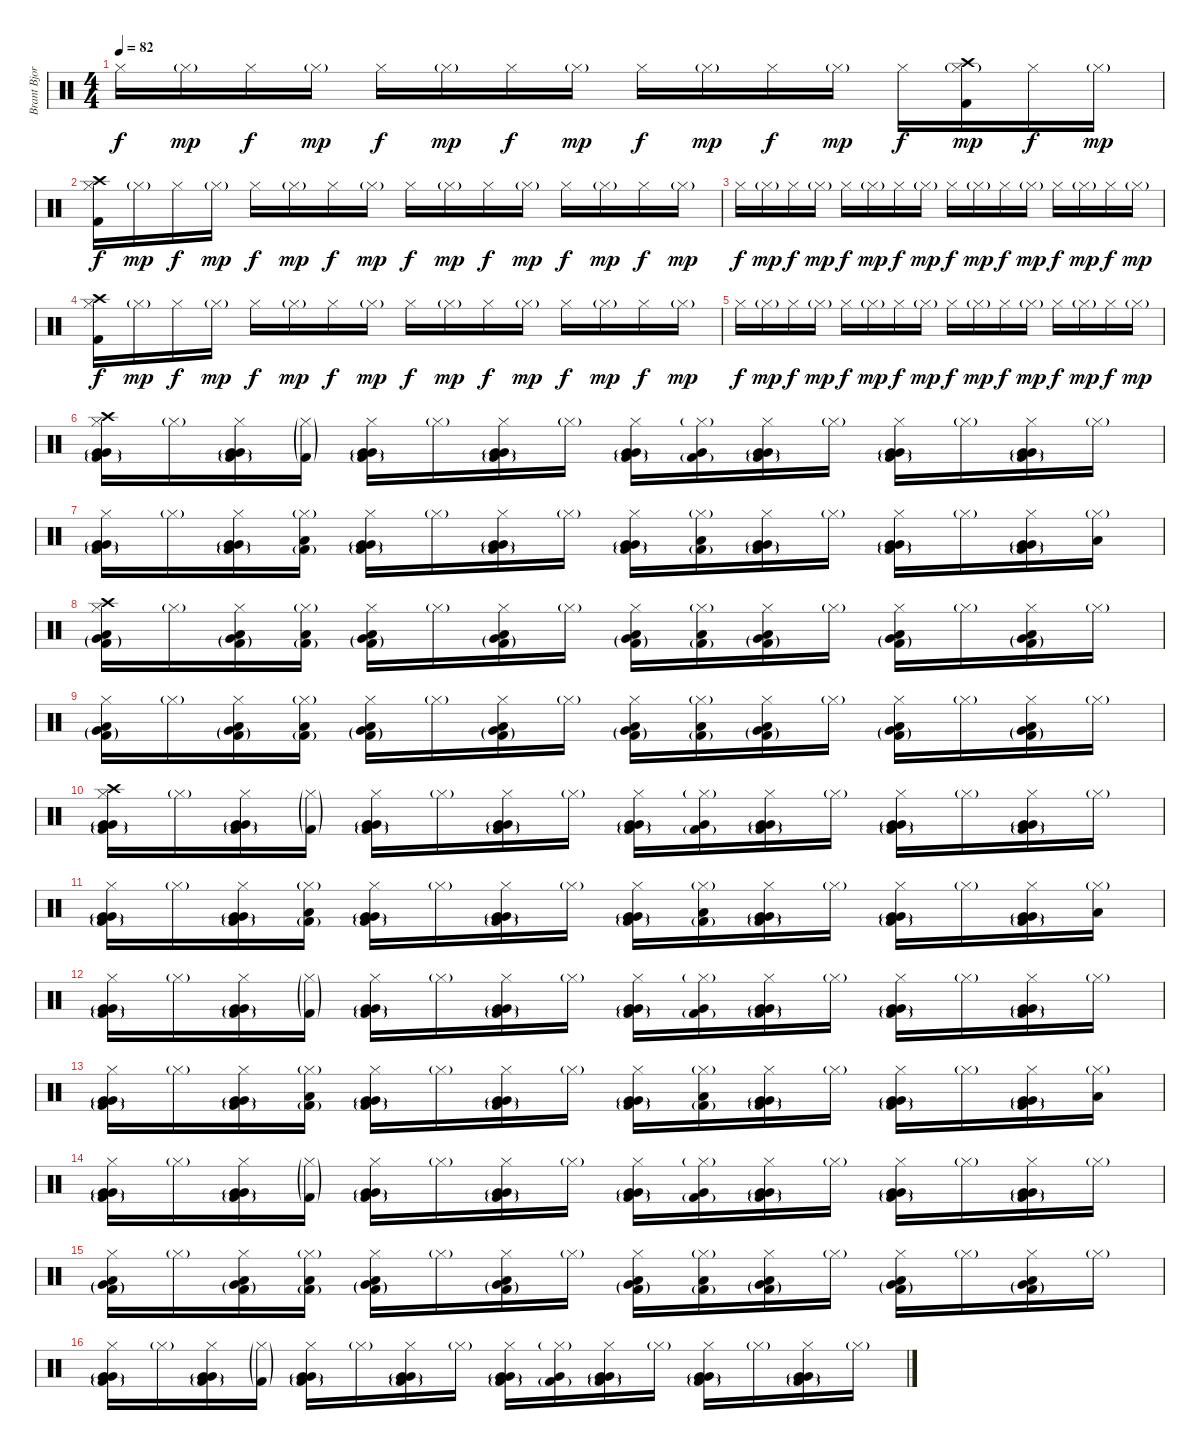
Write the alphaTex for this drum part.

\track ("Brant Bjork" "Brant Bjor") {instrument percussion}
\staff {score}
\articulation defaults
\ts (4 4)
\tempo 82
\clef neutral
\ks c "Hi-Hat (closed)".16{dy f} "Hi-Hat (closed)"{g}.16{dy mp} "Hi-Hat (closed)".16{dy f} "Hi-Hat (closed)"{g}.16{dy mp} "Hi-Hat (closed)".16{dy f} "Hi-Hat (closed)"{g}.16{dy mp} "Hi-Hat (closed)".16{dy f} "Hi-Hat (closed)"{g}.16{dy mp} "Hi-Hat (closed)".16{dy f} "Hi-Hat (closed)"{g}.16{dy mp} "Hi-Hat (closed)".16{dy f} "Hi-Hat (closed)"{g}.16{dy mp} "Hi-Hat (closed)".16{dy f}
("Crash high (hit)" "Kick (hit) 2" "Hi-Hat (closed)"{g}).16{dy mp} "Hi-Hat (closed)".16{dy f} "Hi-Hat (closed)"{g}.16{dy mp} |
("Crash high (hit)" "Kick (hit) 2" "Hi-Hat (closed)").16{dy f} "Hi-Hat (closed)"{g}.16{dy mp} "Hi-Hat (closed)".16{dy f} "Hi-Hat (closed)"{g}.16{dy mp} "Hi-Hat (closed)".16{dy f} "Hi-Hat (closed)"{g}.16{dy mp} "Hi-Hat (closed)".16{dy f} "Hi-Hat (closed)"{g}.16{dy mp} "Hi-Hat (closed)".16{dy f} "Hi-Hat (closed)"{g}.16{dy mp} "Hi-Hat (closed)".16{dy f} "Hi-Hat (closed)"{g}.16{dy mp} "Hi-Hat (closed)".16{dy f} "Hi-Hat (closed)"{g}.16{dy mp} "Hi-Hat (closed)".16{dy f} "Hi-Hat (closed)"{g}.16{dy mp} |
"Hi-Hat (closed)".16{dy f} "Hi-Hat (closed)"{g}.16{dy mp} "Hi-Hat (closed)".16{dy f} "Hi-Hat (closed)"{g}.16{dy mp} "Hi-Hat (closed)".16{dy f} "Hi-Hat (closed)"{g}.16{dy mp} "Hi-Hat (closed)".16{dy f} "Hi-Hat (closed)"{g}.16{dy mp} "Hi-Hat (closed)".16{dy f} "Hi-Hat (closed)"{g}.16{dy mp} "Hi-Hat (closed)".16{dy f} "Hi-Hat (closed)"{g}.16{dy mp} "Hi-Hat (closed)".16{dy f} "Hi-Hat (closed)"{g}.16{dy mp} "Hi-Hat (closed)".16{dy f} "Hi-Hat (closed)"{g}.16{dy mp} |
("Crash high (hit)" "Kick (hit) 2" "Hi-Hat (closed)").16{dy f} "Hi-Hat (closed)"{g}.16{dy mp} "Hi-Hat (closed)".16{dy f} "Hi-Hat (closed)"{g}.16{dy mp} "Hi-Hat (closed)".16{dy f} "Hi-Hat (closed)"{g}.16{dy mp} "Hi-Hat (closed)".16{dy f} "Hi-Hat (closed)"{g}.16{dy mp} "Hi-Hat (closed)".16{dy f} "Hi-Hat (closed)"{g}.16{dy mp} "Hi-Hat (closed)".16{dy f} "Hi-Hat (closed)"{g}.16{dy mp} "Hi-Hat (closed)".16{dy f} "Hi-Hat (closed)"{g}.16{dy mp} "Hi-Hat (closed)".16{dy f} "Hi-Hat (closed)"{g}.16{dy mp} |
"Hi-Hat (closed)".16{dy f} "Hi-Hat (closed)"{g}.16{dy mp} "Hi-Hat (closed)".16{dy f} "Hi-Hat (closed)"{g}.16{dy mp} "Hi-Hat (closed)".16{dy f} "Hi-Hat (closed)"{g}.16{dy mp} "Hi-Hat (closed)".16{dy f} "Hi-Hat (closed)"{g}.16{dy mp} "Hi-Hat (closed)".16{dy f} "Hi-Hat (closed)"{g}.16{dy mp} "Hi-Hat (closed)".16{dy f} "Hi-Hat (closed)"{g}.16{dy mp} "Hi-Hat (closed)".16{dy f} "Hi-Hat (closed)"{g}.16{dy mp} "Hi-Hat (closed)".16{dy f} "Hi-Hat (closed)"{g}.16{dy mp} |
("Crash high (hit)" "Very Low Tom (hit)"{g} "Very Low Tom (hit)" "Kick (hit) 2"{g} "Hi-Hat (closed)").16 "Hi-Hat (closed)"{g}.16 ("Very Low Tom (hit)"{g} "Very Low Tom (hit)" "Kick (hit) 2"{g} "Hi-Hat (closed)").16 ("Kick (hit) 2"{g} "Hi-Hat (closed)"{g}).16 ("Very Low Tom (hit)"{g} "Very Low Tom (hit)" "Kick (hit) 2"{g} "Hi-Hat (closed)").16 "Hi-Hat (closed)"{g}.16 ("Very Low Tom (hit)"{g} "Very Low Tom (hit)" "Kick (hit) 2"{g} "Hi-Hat (closed)").16 "Hi-Hat (closed)"{g}.16 ("Very Low Tom (hit)"{g} "Very Low Tom (hit)" "Kick (hit) 2"{g} "Hi-Hat (closed)").16 ("Very Low Tom (hit)" "Kick (hit) 2"{g} "Hi-Hat (closed)"{g}).16 ("Very Low Tom (hit)"{g} "Very Low Tom (hit)" "Kick (hit) 2"{g} "Hi-Hat (closed)").16 "Hi-Hat (closed)"{g}.16 ("Very Low Tom (hit)"{g} "Very Low Tom (hit)" "Kick (hit) 2"{g} "Hi-Hat (closed)").16 "Hi-Hat (closed)"{g}.16 ("Very Low Tom (hit)"{g} "Very Low Tom (hit)" "Kick (hit) 2"{g} "Hi-Hat (closed)").16 "Hi-Hat (closed)"{g}.16 |
("Very Low Tom (hit)"{g} "Very Low Tom (hit)" "Kick (hit) 2"{g} "Hi-Hat (closed)").16 "Hi-Hat (closed)"{g}.16 ("Very Low Tom (hit)"{g} "Very Low Tom (hit)" "Kick (hit) 2"{g} "Hi-Hat (closed)").16 ("Low Floor Tom (hit)" "Kick (hit) 2"{g} "Hi-Hat (closed)"{g}).16 ("Very Low Tom (hit)"{g} "Very Low Tom (hit)" "Kick (hit) 2"{g} "Hi-Hat (closed)").16 "Hi-Hat (closed)"{g}.16 ("Very Low Tom (hit)"{g} "Very Low Tom (hit)" "Kick (hit) 2"{g} "Hi-Hat (closed)").16 "Hi-Hat (closed)"{g}.16 ("Very Low Tom (hit)"{g} "Very Low Tom (hit)" "Kick (hit) 2"{g} "Hi-Hat (closed)").16 ("Low Floor Tom (hit)" "Kick (hit) 2"{g} "Hi-Hat (closed)"{g}).16 ("Very Low Tom (hit)"{g} "Very Low Tom (hit)" "Kick (hit) 2"{g} "Hi-Hat (closed)").16 "Hi-Hat (closed)"{g}.16 ("Very Low Tom (hit)"{g} "Very Low Tom (hit)" "Kick (hit) 2"{g} "Hi-Hat (closed)").16 "Hi-Hat (closed)"{g}.16 ("Very Low Tom (hit)"{g} "Very Low Tom (hit)" "Kick (hit) 2"{g} "Hi-Hat (closed)").16 ("Low Floor Tom (hit)" "Hi-Hat (closed)"{g}).16 |
("Crash high (hit)" "Very Low Tom (hit)"{g} "Low Tom (hit)" "Kick (hit) 2"{g} "Hi-Hat (closed)").16 "Hi-Hat (closed)"{g}.16 ("Very Low Tom (hit)"{g} "Low Tom (hit)" "Kick (hit) 2"{g} "Hi-Hat (closed)").16 ("Low Tom (hit)" "Kick (hit) 2"{g} "Hi-Hat (closed)"{g}).16 ("Very Low Tom (hit)"{g} "Low Tom (hit)" "Kick (hit) 2"{g} "Hi-Hat (closed)").16 "Hi-Hat (closed)"{g}.16 ("Very Low Tom (hit)"{g} "Low Tom (hit)" "Kick (hit) 2"{g} "Hi-Hat (closed)").16 "Hi-Hat (closed)"{g}.16 ("Very Low Tom (hit)"{g} "Low Tom (hit)" "Kick (hit) 2"{g} "Hi-Hat (closed)").16 ("Low Tom (hit)" "Kick (hit) 2"{g} "Hi-Hat (closed)"{g}).16 ("Very Low Tom (hit)"{g} "Low Tom (hit)" "Kick (hit) 2"{g} "Hi-Hat (closed)").16 "Hi-Hat (closed)"{g}.16 ("Very Low Tom (hit)"{g} "Low Tom (hit)" "Kick (hit) 2"{g} "Hi-Hat (closed)").16 "Hi-Hat (closed)"{g}.16 ("Very Low Tom (hit)"{g} "Low Tom (hit)" "Kick (hit) 2"{g} "Hi-Hat (closed)").16 "Hi-Hat (closed)"{g}.16 |
("Very Low Tom (hit)"{g} "Low Tom (hit)" "Kick (hit) 2"{g} "Hi-Hat (closed)").16 "Hi-Hat (closed)"{g}.16 ("Very Low Tom (hit)"{g} "Low Tom (hit)" "Kick (hit) 2"{g} "Hi-Hat (closed)").16 ("Low Tom (hit)" "Kick (hit) 2"{g} "Hi-Hat (closed)"{g}).16 ("Very Low Tom (hit)"{g} "Low Tom (hit)" "Kick (hit) 2"{g} "Hi-Hat (closed)").16 "Hi-Hat (closed)"{g}.16 ("Very Low Tom (hit)"{g} "Low Tom (hit)" "Kick (hit) 2"{g} "Hi-Hat (closed)").16 "Hi-Hat (closed)"{g}.16 ("Very Low Tom (hit)"{g} "Low Tom (hit)" "Kick (hit) 2"{g} "Hi-Hat (closed)").16 ("Low Tom (hit)" "Kick (hit) 2"{g} "Hi-Hat (closed)"{g}).16 ("Very Low Tom (hit)"{g} "Low Tom (hit)" "Kick (hit) 2"{g} "Hi-Hat (closed)").16 "Hi-Hat (closed)"{g}.16 ("Very Low Tom (hit)"{g} "Low Tom (hit)" "Kick (hit) 2"{g} "Hi-Hat (closed)").16 "Hi-Hat (closed)"{g}.16 ("Very Low Tom (hit)"{g} "Low Tom (hit)" "Kick (hit) 2"{g} "Hi-Hat (closed)").16 "Hi-Hat (closed)"{g}.16 |
("Crash high (hit)" "Very Low Tom (hit)"{g} "Very Low Tom (hit)" "Kick (hit) 2"{g} "Hi-Hat (closed)").16 "Hi-Hat (closed)"{g}.16 ("Very Low Tom (hit)"{g} "Very Low Tom (hit)" "Kick (hit) 2"{g} "Hi-Hat (closed)").16 ("Kick (hit) 2"{g} "Hi-Hat (closed)"{g}).16 ("Very Low Tom (hit)"{g} "Very Low Tom (hit)" "Kick (hit) 2"{g} "Hi-Hat (closed)").16 "Hi-Hat (closed)"{g}.16 ("Very Low Tom (hit)"{g} "Very Low Tom (hit)" "Kick (hit) 2"{g} "Hi-Hat (closed)").16 "Hi-Hat (closed)"{g}.16 ("Very Low Tom (hit)"{g} "Very Low Tom (hit)" "Kick (hit) 2"{g} "Hi-Hat (closed)").16 ("Very Low Tom (hit)" "Kick (hit) 2"{g} "Hi-Hat (closed)"{g}).16 ("Very Low Tom (hit)"{g} "Very Low Tom (hit)" "Kick (hit) 2"{g} "Hi-Hat (closed)").16 "Hi-Hat (closed)"{g}.16 ("Very Low Tom (hit)"{g} "Very Low Tom (hit)" "Kick (hit) 2"{g} "Hi-Hat (closed)").16 "Hi-Hat (closed)"{g}.16 ("Very Low Tom (hit)"{g} "Very Low Tom (hit)" "Kick (hit) 2"{g} "Hi-Hat (closed)").16 "Hi-Hat (closed)"{g}.16 |
("Very Low Tom (hit)"{g} "Very Low Tom (hit)" "Kick (hit) 2"{g} "Hi-Hat (closed)").16 "Hi-Hat (closed)"{g}.16 ("Very Low Tom (hit)"{g} "Very Low Tom (hit)" "Kick (hit) 2"{g} "Hi-Hat (closed)").16 ("Low Floor Tom (hit)" "Kick (hit) 2"{g} "Hi-Hat (closed)"{g}).16 ("Very Low Tom (hit)"{g} "Very Low Tom (hit)" "Kick (hit) 2"{g} "Hi-Hat (closed)").16 "Hi-Hat (closed)"{g}.16 ("Very Low Tom (hit)"{g} "Very Low Tom (hit)" "Kick (hit) 2"{g} "Hi-Hat (closed)").16 "Hi-Hat (closed)"{g}.16 ("Very Low Tom (hit)"{g} "Very Low Tom (hit)" "Kick (hit) 2"{g} "Hi-Hat (closed)").16 ("Low Floor Tom (hit)" "Kick (hit) 2"{g} "Hi-Hat (closed)"{g}).16 ("Very Low Tom (hit)"{g} "Very Low Tom (hit)" "Kick (hit) 2"{g} "Hi-Hat (closed)").16 "Hi-Hat (closed)"{g}.16 ("Very Low Tom (hit)"{g} "Very Low Tom (hit)" "Kick (hit) 2"{g} "Hi-Hat (closed)").16 "Hi-Hat (closed)"{g}.16 ("Very Low Tom (hit)"{g} "Very Low Tom (hit)" "Kick (hit) 2"{g} "Hi-Hat (closed)").16 ("Low Floor Tom (hit)" "Hi-Hat (closed)"{g}).16 |
("Very Low Tom (hit)"{g} "Very Low Tom (hit)" "Kick (hit) 2"{g} "Hi-Hat (closed)").16 "Hi-Hat (closed)"{g}.16 ("Very Low Tom (hit)"{g} "Very Low Tom (hit)" "Kick (hit) 2"{g} "Hi-Hat (closed)").16 ("Kick (hit) 2"{g} "Hi-Hat (closed)"{g}).16 ("Very Low Tom (hit)"{g} "Very Low Tom (hit)" "Kick (hit) 2"{g} "Hi-Hat (closed)").16 "Hi-Hat (closed)"{g}.16 ("Very Low Tom (hit)"{g} "Very Low Tom (hit)" "Kick (hit) 2"{g} "Hi-Hat (closed)").16 "Hi-Hat (closed)"{g}.16 ("Very Low Tom (hit)"{g} "Very Low Tom (hit)" "Kick (hit) 2"{g} "Hi-Hat (closed)").16 ("Very Low Tom (hit)" "Kick (hit) 2"{g} "Hi-Hat (closed)"{g}).16 ("Very Low Tom (hit)"{g} "Very Low Tom (hit)" "Kick (hit) 2"{g} "Hi-Hat (closed)").16 "Hi-Hat (closed)"{g}.16 ("Very Low Tom (hit)"{g} "Very Low Tom (hit)" "Kick (hit) 2"{g} "Hi-Hat (closed)").16 "Hi-Hat (closed)"{g}.16 ("Very Low Tom (hit)"{g} "Very Low Tom (hit)" "Kick (hit) 2"{g} "Hi-Hat (closed)").16 "Hi-Hat (closed)"{g}.16 |
("Very Low Tom (hit)"{g} "Very Low Tom (hit)" "Kick (hit) 2"{g} "Hi-Hat (closed)").16 "Hi-Hat (closed)"{g}.16 ("Very Low Tom (hit)"{g} "Very Low Tom (hit)" "Kick (hit) 2"{g} "Hi-Hat (closed)").16 ("Low Floor Tom (hit)" "Kick (hit) 2"{g} "Hi-Hat (closed)"{g}).16 ("Very Low Tom (hit)"{g} "Very Low Tom (hit)" "Kick (hit) 2"{g} "Hi-Hat (closed)").16 "Hi-Hat (closed)"{g}.16 ("Very Low Tom (hit)"{g} "Very Low Tom (hit)" "Kick (hit) 2"{g} "Hi-Hat (closed)").16 "Hi-Hat (closed)"{g}.16 ("Very Low Tom (hit)"{g} "Very Low Tom (hit)" "Kick (hit) 2"{g} "Hi-Hat (closed)").16 ("Low Floor Tom (hit)" "Kick (hit) 2"{g} "Hi-Hat (closed)"{g}).16 ("Very Low Tom (hit)"{g} "Very Low Tom (hit)" "Kick (hit) 2"{g} "Hi-Hat (closed)").16 "Hi-Hat (closed)"{g}.16 ("Very Low Tom (hit)"{g} "Very Low Tom (hit)" "Kick (hit) 2"{g} "Hi-Hat (closed)").16 "Hi-Hat (closed)"{g}.16 ("Very Low Tom (hit)"{g} "Very Low Tom (hit)" "Kick (hit) 2"{g} "Hi-Hat (closed)").16 ("Low Floor Tom (hit)" "Hi-Hat (closed)"{g}).16 |
("Very Low Tom (hit)"{g} "Very Low Tom (hit)" "Kick (hit) 2"{g} "Hi-Hat (closed)").16 "Hi-Hat (closed)"{g}.16 ("Very Low Tom (hit)"{g} "Very Low Tom (hit)" "Kick (hit) 2"{g} "Hi-Hat (closed)").16 ("Kick (hit) 2"{g} "Hi-Hat (closed)"{g}).16 ("Very Low Tom (hit)"{g} "Very Low Tom (hit)" "Kick (hit) 2"{g} "Hi-Hat (closed)").16 "Hi-Hat (closed)"{g}.16 ("Very Low Tom (hit)"{g} "Very Low Tom (hit)" "Kick (hit) 2"{g} "Hi-Hat (closed)").16 "Hi-Hat (closed)"{g}.16 ("Very Low Tom (hit)"{g} "Very Low Tom (hit)" "Kick (hit) 2"{g} "Hi-Hat (closed)").16 ("Very Low Tom (hit)" "Kick (hit) 2"{g} "Hi-Hat (closed)"{g}).16 ("Very Low Tom (hit)"{g} "Very Low Tom (hit)" "Kick (hit) 2"{g} "Hi-Hat (closed)").16 "Hi-Hat (closed)"{g}.16 ("Very Low Tom (hit)"{g} "Very Low Tom (hit)" "Kick (hit) 2"{g} "Hi-Hat (closed)").16 "Hi-Hat (closed)"{g}.16 ("Very Low Tom (hit)"{g} "Very Low Tom (hit)" "Kick (hit) 2"{g} "Hi-Hat (closed)").16 "Hi-Hat (closed)"{g}.16 |
("Very Low Tom (hit)"{g} "Low Tom (hit)" "Kick (hit) 2"{g} "Hi-Hat (closed)").16 "Hi-Hat (closed)"{g}.16 ("Very Low Tom (hit)"{g} "Low Tom (hit)" "Kick (hit) 2"{g} "Hi-Hat (closed)").16 ("Low Tom (hit)" "Kick (hit) 2"{g} "Hi-Hat (closed)"{g}).16 ("Very Low Tom (hit)"{g} "Low Tom (hit)" "Kick (hit) 2"{g} "Hi-Hat (closed)").16 "Hi-Hat (closed)"{g}.16 ("Very Low Tom (hit)"{g} "Low Tom (hit)" "Kick (hit) 2"{g} "Hi-Hat (closed)").16 "Hi-Hat (closed)"{g}.16 ("Very Low Tom (hit)"{g} "Low Tom (hit)" "Kick (hit) 2"{g} "Hi-Hat (closed)").16 ("Low Tom (hit)" "Kick (hit) 2"{g} "Hi-Hat (closed)"{g}).16 ("Very Low Tom (hit)"{g} "Low Tom (hit)" "Kick (hit) 2"{g} "Hi-Hat (closed)").16 "Hi-Hat (closed)"{g}.16 ("Very Low Tom (hit)"{g} "Low Tom (hit)" "Kick (hit) 2"{g} "Hi-Hat (closed)").16 "Hi-Hat (closed)"{g}.16 ("Very Low Tom (hit)"{g} "Low Tom (hit)" "Kick (hit) 2"{g} "Hi-Hat (closed)").16 "Hi-Hat (closed)"{g}.16 |
("Very Low Tom (hit)"{g} "Very Low Tom (hit)" "Kick (hit) 2"{g} "Hi-Hat (closed)").16 "Hi-Hat (closed)"{g}.16 ("Very Low Tom (hit)"{g} "Very Low Tom (hit)" "Kick (hit) 2"{g} "Hi-Hat (closed)").16 ("Kick (hit) 2"{g} "Hi-Hat (closed)"{g}).16 ("Very Low Tom (hit)"{g} "Very Low Tom (hit)" "Kick (hit) 2"{g} "Hi-Hat (closed)").16 "Hi-Hat (closed)"{g}.16 ("Very Low Tom (hit)"{g} "Very Low Tom (hit)" "Kick (hit) 2"{g} "Hi-Hat (closed)").16 "Hi-Hat (closed)"{g}.16 ("Very Low Tom (hit)"{g} "Very Low Tom (hit)" "Kick (hit) 2"{g} "Hi-Hat (closed)").16 ("Very Low Tom (hit)" "Kick (hit) 2"{g} "Hi-Hat (closed)"{g}).16 ("Very Low Tom (hit)"{g} "Very Low Tom (hit)" "Kick (hit) 2"{g} "Hi-Hat (closed)").16 "Hi-Hat (closed)"{g}.16 ("Very Low Tom (hit)"{g} "Very Low Tom (hit)" "Kick (hit) 2"{g} "Hi-Hat (closed)").16 "Hi-Hat (closed)"{g}.16 ("Very Low Tom (hit)"{g} "Very Low Tom (hit)" "Kick (hit) 2"{g} "Hi-Hat (closed)").16 "Hi-Hat (closed)"{g}.16
